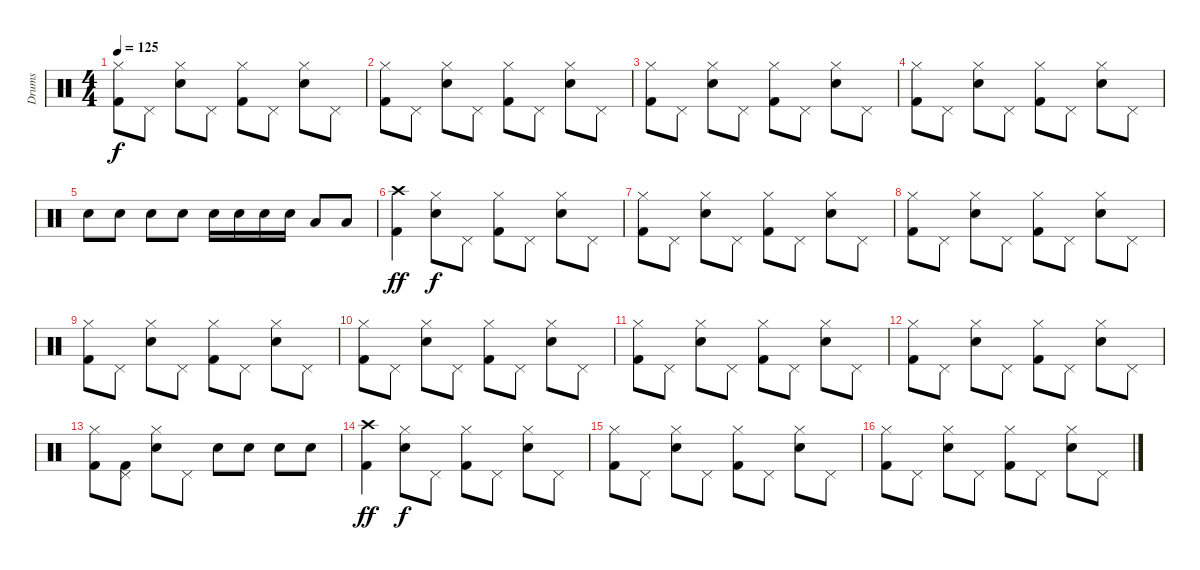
\track ("Drums" "Drums") {instrument percussion}
\staff {score}
\articulation defaults
\ts (4 4)
\tempo 125
\clef neutral
\ks c
("Hi-Hat (closed)" "Kick (hit) 2").8{dy f} "Pedal Hi-Hat (hit)".8 ("Hi-Hat (closed)" "Electric Snare (hit)").8 "Pedal Hi-Hat (hit)".8 ("Hi-Hat (closed)" "Kick (hit) 2").8 "Pedal Hi-Hat (hit)".8 ("Hi-Hat (closed)" "Electric Snare (hit)").8 "Pedal Hi-Hat (hit)".8 |
("Hi-Hat (closed)" "Kick (hit) 2").8 "Pedal Hi-Hat (hit)".8 ("Hi-Hat (closed)" "Electric Snare (hit)").8 "Pedal Hi-Hat (hit)".8 ("Hi-Hat (closed)" "Kick (hit) 2").8 "Pedal Hi-Hat (hit)".8 ("Hi-Hat (closed)" "Electric Snare (hit)").8 "Pedal Hi-Hat (hit)".8 |
("Hi-Hat (closed)" "Kick (hit) 2").8 "Pedal Hi-Hat (hit)".8 ("Hi-Hat (closed)" "Electric Snare (hit)").8 "Pedal Hi-Hat (hit)".8 ("Hi-Hat (closed)" "Kick (hit) 2").8 "Pedal Hi-Hat (hit)".8 ("Hi-Hat (closed)" "Electric Snare (hit)").8 "Pedal Hi-Hat (hit)".8 |
("Hi-Hat (closed)" "Kick (hit) 2").8 "Pedal Hi-Hat (hit)".8 ("Hi-Hat (closed)" "Electric Snare (hit)").8 "Pedal Hi-Hat (hit)".8 ("Hi-Hat (closed)" "Kick (hit) 2").8 "Pedal Hi-Hat (hit)".8 ("Hi-Hat (closed)" "Electric Snare (hit)").8 "Pedal Hi-Hat (hit)".8 |
"Snare (hit) 2".8 "Snare (hit) 2".8 "Snare (hit) 2".8 "Snare (hit) 2".8 "Snare (hit) 2".16 "Snare (hit) 2".16 "Snare (hit) 2".16 "Snare (hit) 2".16 "Low Tom (hit)".8 "Low Tom (hit)".8 |
("Crash high (hit)" "Kick (hit) 2").4{dy ff} ("Hi-Hat (closed)" "Electric Snare (hit)").8{dy f} "Pedal Hi-Hat (hit)".8 ("Hi-Hat (closed)" "Kick (hit) 2").8 "Pedal Hi-Hat (hit)".8 ("Hi-Hat (closed)" "Electric Snare (hit)").8 "Pedal Hi-Hat (hit)".8 |
("Hi-Hat (closed)" "Kick (hit) 2").8 "Pedal Hi-Hat (hit)".8 ("Hi-Hat (closed)" "Electric Snare (hit)").8 "Pedal Hi-Hat (hit)".8 ("Hi-Hat (closed)" "Kick (hit) 2").8 "Pedal Hi-Hat (hit)".8 ("Hi-Hat (closed)" "Electric Snare (hit)").8 "Pedal Hi-Hat (hit)".8 |
("Hi-Hat (closed)" "Kick (hit) 2").8 "Pedal Hi-Hat (hit)".8 ("Hi-Hat (closed)" "Electric Snare (hit)").8 "Pedal Hi-Hat (hit)".8 ("Hi-Hat (closed)" "Kick (hit) 2").8 "Pedal Hi-Hat (hit)".8 ("Hi-Hat (closed)" "Electric Snare (hit)").8 "Pedal Hi-Hat (hit)".8 |
("Hi-Hat (closed)" "Kick (hit) 2").8 "Pedal Hi-Hat (hit)".8 ("Hi-Hat (closed)" "Electric Snare (hit)").8 "Pedal Hi-Hat (hit)".8 ("Hi-Hat (closed)" "Kick (hit) 2").8 "Pedal Hi-Hat (hit)".8 ("Hi-Hat (closed)" "Electric Snare (hit)").8 "Pedal Hi-Hat (hit)".8 |
("Hi-Hat (closed)" "Kick (hit) 2").8 "Pedal Hi-Hat (hit)".8 ("Hi-Hat (closed)" "Electric Snare (hit)").8 "Pedal Hi-Hat (hit)".8 ("Hi-Hat (closed)" "Kick (hit) 2").8 "Pedal Hi-Hat (hit)".8 ("Hi-Hat (closed)" "Electric Snare (hit)").8 "Pedal Hi-Hat (hit)".8 |
("Hi-Hat (closed)" "Kick (hit) 2").8 "Pedal Hi-Hat (hit)".8 ("Hi-Hat (closed)" "Electric Snare (hit)").8 "Pedal Hi-Hat (hit)".8 ("Hi-Hat (closed)" "Kick (hit) 2").8 "Pedal Hi-Hat (hit)".8 ("Hi-Hat (closed)" "Electric Snare (hit)").8 "Pedal Hi-Hat (hit)".8 |
("Hi-Hat (closed)" "Kick (hit) 2").8 "Pedal Hi-Hat (hit)".8 ("Hi-Hat (closed)" "Electric Snare (hit)").8 "Pedal Hi-Hat (hit)".8 ("Hi-Hat (closed)" "Kick (hit) 2").8 "Pedal Hi-Hat (hit)".8 ("Hi-Hat (closed)" "Electric Snare (hit)").8 "Pedal Hi-Hat (hit)".8 |
("Hi-Hat (closed)" "Kick (hit) 2").8 ("Pedal Hi-Hat (hit)" "Kick (hit) 2").8 ("Hi-Hat (closed)" "Electric Snare (hit)").8 "Pedal Hi-Hat (hit)".8 "Electric Snare (hit)".8 "Electric Snare (hit)".8 "Electric Snare (hit)".8 "Electric Snare (hit)".8 |
("Crash high (hit)" "Kick (hit) 2").4{dy ff} ("Hi-Hat (closed)" "Electric Snare (hit)").8{dy f} "Pedal Hi-Hat (hit)".8 ("Hi-Hat (closed)" "Kick (hit) 2").8 "Pedal Hi-Hat (hit)".8 ("Hi-Hat (closed)" "Electric Snare (hit)").8 "Pedal Hi-Hat (hit)".8 |
("Hi-Hat (closed)" "Kick (hit) 2").8 "Pedal Hi-Hat (hit)".8 ("Hi-Hat (closed)" "Electric Snare (hit)").8 "Pedal Hi-Hat (hit)".8 ("Hi-Hat (closed)" "Kick (hit) 2").8 "Pedal Hi-Hat (hit)".8 ("Hi-Hat (closed)" "Electric Snare (hit)").8 "Pedal Hi-Hat (hit)".8 |
("Hi-Hat (closed)" "Kick (hit) 2").8 "Pedal Hi-Hat (hit)".8 ("Hi-Hat (closed)" "Electric Snare (hit)").8 "Pedal Hi-Hat (hit)".8 ("Hi-Hat (closed)" "Kick (hit) 2").8 "Pedal Hi-Hat (hit)".8 ("Hi-Hat (closed)" "Electric Snare (hit)").8 "Pedal Hi-Hat (hit)".8
